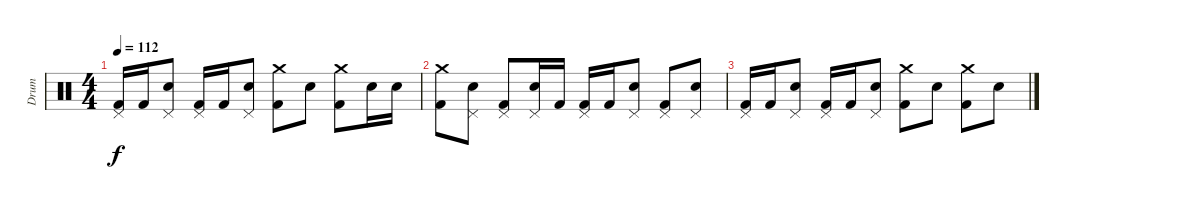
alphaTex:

\track ("Drum" "Drum") {instrument percussion}
\staff {score}
\articulation defaults
\ts (4 4)
\tempo 112
\clef neutral
\ks c
("Pedal Hi-Hat (hit)" "Kick (hit) 2").16{dy f} "Kick (hit) 2".16 ("Pedal Hi-Hat (hit)" "Electric Snare (hit)").8 ("Pedal Hi-Hat (hit)" "Kick (hit) 2").16 "Kick (hit) 2".16 ("Pedal Hi-Hat (hit)" "Electric Snare (hit)").8 ("Crash medium (hit)" "Kick (hit) 2").8 "Electric Snare (hit)".8 ("Crash medium (hit)" "Kick (hit) 2").8 "Electric Snare (hit)".16 "Electric Snare (hit)".16 |
("Crash medium (hit)" "Kick (hit) 2").8 ("Pedal Hi-Hat (hit)" "Electric Snare (hit)").8 ("Pedal Hi-Hat (hit)" "Kick (hit) 2").8 ("Pedal Hi-Hat (hit)" "Electric Snare (hit)").16 "Kick (hit) 2".16 ("Pedal Hi-Hat (hit)" "Kick (hit) 2").16 "Kick (hit) 2".16 ("Pedal Hi-Hat (hit)" "Electric Snare (hit)").8 ("Pedal Hi-Hat (hit)" "Kick (hit) 2").8 ("Pedal Hi-Hat (hit)" "Electric Snare (hit)").8 |
("Pedal Hi-Hat (hit)" "Kick (hit) 2").16 "Kick (hit) 2".16 ("Pedal Hi-Hat (hit)" "Electric Snare (hit)").8 ("Pedal Hi-Hat (hit)" "Kick (hit) 2").16 "Kick (hit) 2".16 ("Pedal Hi-Hat (hit)" "Electric Snare (hit)").8 ("Crash medium (hit)" "Kick (hit) 2").8 "Electric Snare (hit)".8 ("Crash medium (hit)" "Kick (hit) 2").8 "Electric Snare (hit)".8
